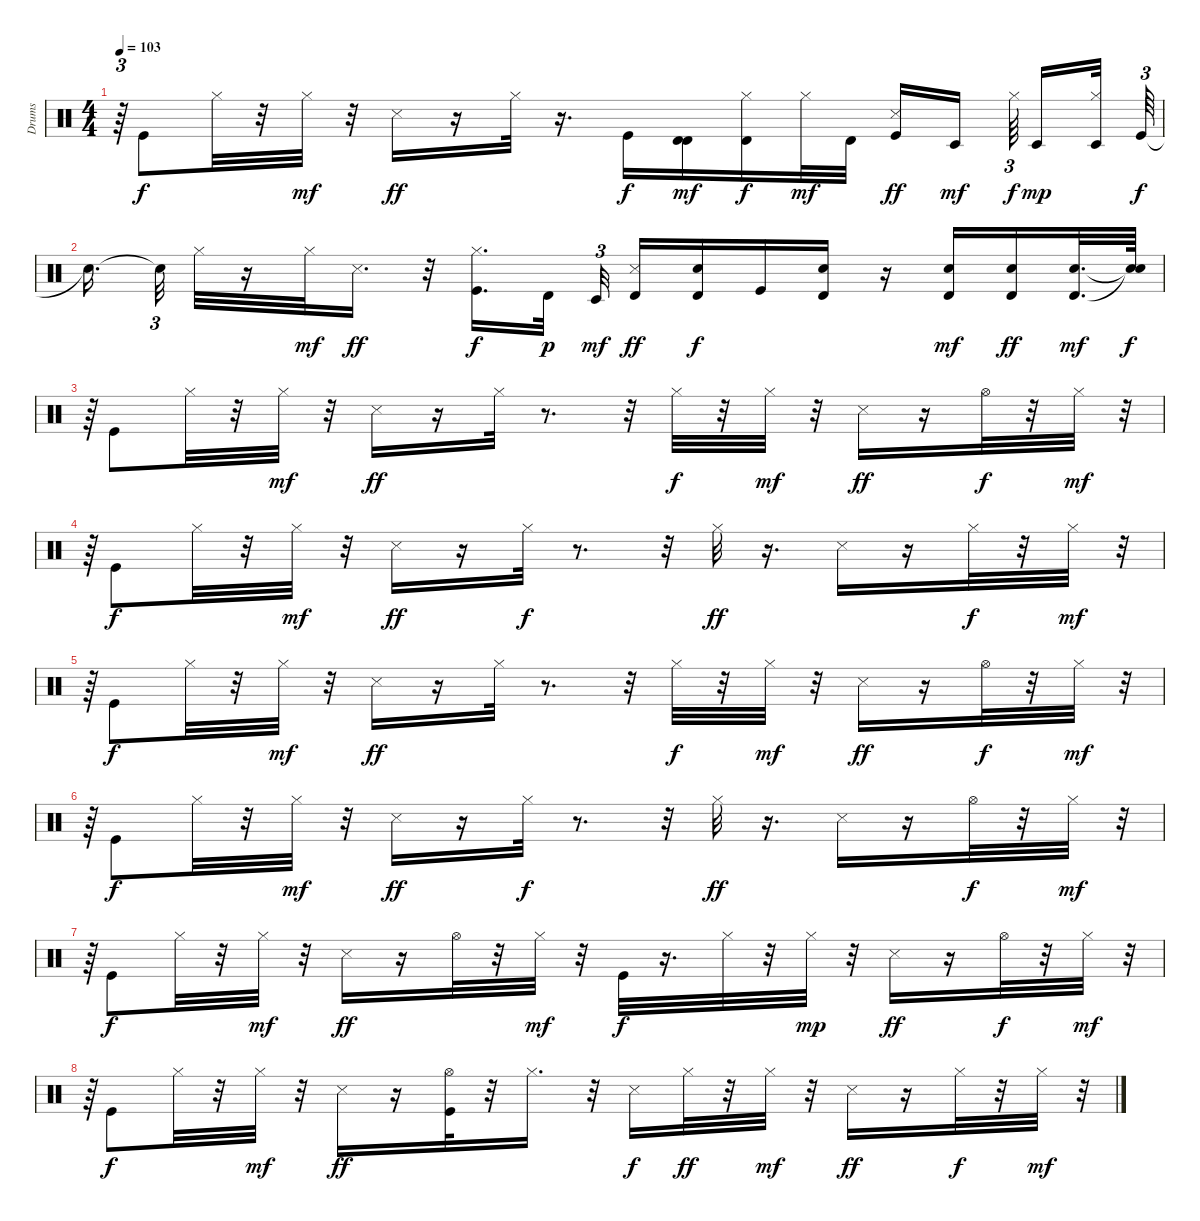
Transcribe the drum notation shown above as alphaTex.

\track ("Drums" "Drums") {instrument percussion}
\staff {score}
\articulation defaults
\ts (4 4)
\tempo 103
\clef neutral
\ks c
r.64{tu (3 2) dy mf} "Kick (hit)".8{dy f} "Hi-Hat (closed)".32 r.32 "Hi-Hat (closed)".32{dy mf} r.32 "Snare (side stick) 3".16{dy ff} r.16 "Hi-Hat (closed)".32 r.16{d} "Kick (hit)".16{dy f} ("Timbale high (hit)" "Timbale high (hit)").16{dy mf} ("Hi-Hat (closed)" "Timbale high (hit)").16{dy f} "Hi-Hat (closed)".32{dy mf} "Timbale high (hit)".32 ("Kick (hit)" "Snare (side stick) 3").16{dy ff} "Timbale low (hit)".16{dy mf beam splitsecondary} "Hi-Hat (closed)".64{tu (3 2) dy f beam splitsecondary} "Timbale low (hit)".16{dy mp} ("Hi-Hat (closed)" "Timbale low (hit)").32 "Kick (hit)".64{tu (3 2) dy f} |
"Snare (hit)"{t}.16{d beam splitsecondary} "Snare (hit)"{t}.32{tu (3 2)} "Hi-Hat (closed)".32 r.16 "Hi-Hat (closed)".32{dy mf} "Snare (side stick) 3".16{d dy ff} r.32 ("Kick (hit)" "Hi-Hat (closed)").16{d dy f} "Timbale high (hit)".32{dy p} "Timbale low (hit)".32{tu (3 2) dy mf} ("Snare (side stick) 3" "Timbale high (hit)").16{dy ff} ("Electric Snare (hit)" "Timbale high (hit)").16{dy f} "Kick (hit)".16 ("Electric Snare (hit)" "Timbale high (hit)").16 r.16 ("Electric Snare (hit)" "Timbale high (hit)").16{dy mf} ("Electric Snare (hit)" "Timbale high (hit)").16{dy ff} ("Electric Snare (hit)" "Timbale high (hit)").32{d dy mf} ("Snare (hit)"{t} "Snare (hit)"{t}).64{dy f} |
r.64{tu (3 2)} "Kick (hit)".8 "Hi-Hat (closed)".32 r.32 "Hi-Hat (closed)".32{dy mf} r.32 "Snare (side stick) 3".16{dy ff} r.16 "Hi-Hat (closed)".32 r.8{d} r.32 "Hi-Hat (closed)".32{dy f} r.32 "Hi-Hat (closed)".32{dy mf} r.32 "Snare (side stick) 3".16{dy ff} r.16 "Hi-Hat (open)".32{dy f} r.32 "Hi-Hat (closed)".32{dy mf} r.32{tu (3 2)} |
r.64{tu (3 2)} "Kick (hit)".8{dy f} "Hi-Hat (closed)".32 r.32 "Hi-Hat (closed)".32{dy mf} r.32 "Snare (side stick) 3".16{dy ff} r.16 "Hi-Hat (closed)".32{dy f} r.8{d} r.32 "Hi-Hat (closed)".32{dy ff} r.16{d} "Snare (side stick) 3".16 r.16 "Hi-Hat (closed)".32{dy f} r.32 "Hi-Hat (closed)".32{dy mf} r.32{tu (3 2)} |
r.64{tu (3 2)} "Kick (hit)".8{dy f} "Hi-Hat (closed)".32 r.32 "Hi-Hat (closed)".32{dy mf} r.32 "Snare (side stick) 3".16{dy ff} r.16 "Hi-Hat (closed)".32 r.8{d} r.32 "Hi-Hat (closed)".32{dy f} r.32 "Hi-Hat (closed)".32{dy mf} r.32 "Snare (side stick) 3".16{dy ff} r.16 "Hi-Hat (open)".32{dy f} r.32 "Hi-Hat (closed)".32{dy mf} r.32{tu (3 2)} |
r.64{tu (3 2)} "Kick (hit)".8{dy f} "Hi-Hat (closed)".32 r.32 "Hi-Hat (closed)".32{dy mf} r.32 "Snare (side stick) 3".16{dy ff} r.16 "Hi-Hat (closed)".32{dy f} r.8{d} r.32 "Hi-Hat (closed)".32{dy ff} r.16{d} "Snare (side stick) 3".16 r.16 "Hi-Hat (open)".32{dy f} r.32 "Hi-Hat (closed)".32{dy mf} r.32{tu (3 2)} |
r.64{tu (3 2)} "Kick (hit)".8{dy f} "Hi-Hat (closed)".32 r.32 "Hi-Hat (closed)".32{dy mf} r.32 "Snare (side stick) 3".16{dy ff} r.16 "Hi-Hat (open)".32 r.32 "Hi-Hat (closed)".32{dy mf} r.32 "Kick (hit)".32{dy f} r.16{d} "Hi-Hat (closed)".32 r.32 "Hi-Hat (closed)".32{dy mp} r.32 "Snare (side stick) 3".16{dy ff} r.16 "Hi-Hat (open)".32{dy f} r.32 "Hi-Hat (closed)".32{dy mf} r.32{tu (3 2)} |
r.64{tu (3 2)} "Kick (hit)".8{dy f} "Hi-Hat (closed)".32 r.32 "Hi-Hat (closed)".32{dy mf} r.32 "Snare (side stick) 3".16{dy ff} r.16 ("Hi-Hat (open)" "Kick (hit)").32 r.32 "Hi-Hat (closed)".16{d} r.32 "Snare (side stick) 3".16{dy f} "Hi-Hat (closed)".32{dy ff} r.32 "Hi-Hat (closed)".32{dy mf} r.32 "Snare (side stick) 3".16{dy ff} r.16 "Hi-Hat (closed)".32{dy f} r.32 "Hi-Hat (closed)".32{dy mf} r.32{tu (3 2)}
